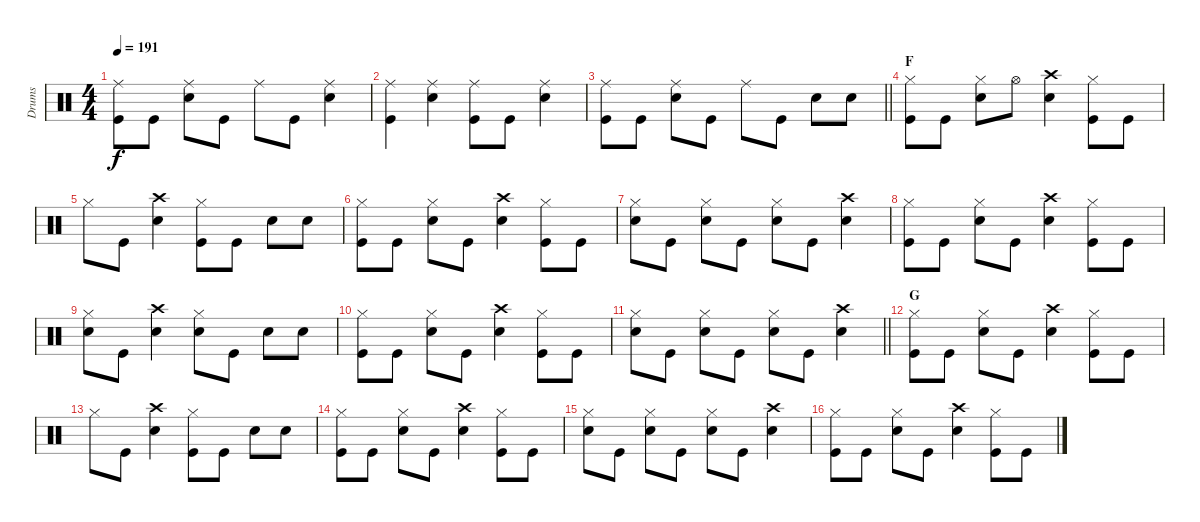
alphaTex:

\track ("Drums" "Drums") {instrument percussion}
\staff {score}
\articulation defaults
\ts (4 4)
\tempo 191
\clef neutral
\ks c
("Ride (middle)" "Kick (hit)").8{dy f} "Kick (hit)".8 ("Ride (middle)" "Electric Snare (hit)").8 "Kick (hit)".8 "Ride (middle)".8 "Kick (hit)".8 ("Ride (middle)" "Electric Snare (hit)").4 |
("Ride (middle)" "Kick (hit)").4 ("Ride (middle)" "Electric Snare (hit)").4 ("Ride (middle)" "Kick (hit)").8 "Kick (hit)".8 ("Ride (middle)" "Electric Snare (hit)").4 |
\barLineRight lightlight
("Ride (middle)" "Kick (hit)").8 "Kick (hit)".8 ("Ride (middle)" "Electric Snare (hit)").8 "Kick (hit)".8 "Ride (middle)".8 "Kick (hit)".8 "Electric Snare (hit)".8 "Electric Snare (hit)".8 |
\section ("" "F")
("Hi-Hat (closed)" "Kick (hit)").8 "Kick (hit)".8 ("Hi-Hat (closed)" "Electric Snare (hit)").8 "Hi-Hat (open)".8 ("Crash high (hit)" "Electric Snare (hit)").4 ("Hi-Hat (closed)" "Kick (hit)").8 "Kick (hit)".8 |
"Hi-Hat (closed)".8 "Kick (hit)".8 ("Crash high (hit)" "Electric Snare (hit)").4 ("Hi-Hat (closed)" "Kick (hit)").8 "Kick (hit)".8 "Electric Snare (hit)".8 "Electric Snare (hit)".8 |
("Hi-Hat (closed)" "Kick (hit)").8 "Kick (hit)".8 ("Hi-Hat (closed)" "Electric Snare (hit)").8 "Kick (hit)".8 ("Crash high (hit)" "Electric Snare (hit)").4 ("Hi-Hat (closed)" "Kick (hit)").8 "Kick (hit)".8 |
("Hi-Hat (closed)" "Electric Snare (hit)").8 "Kick (hit)".8 ("Hi-Hat (closed)" "Electric Snare (hit)").8 "Kick (hit)".8 ("Hi-Hat (closed)" "Electric Snare (hit)").8 "Kick (hit)".8 ("Crash high (hit)" "Electric Snare (hit)").4 |
("Hi-Hat (closed)" "Kick (hit)").8 "Kick (hit)".8 ("Hi-Hat (closed)" "Electric Snare (hit)").8 "Kick (hit)".8 ("Crash high (hit)" "Electric Snare (hit)").4 ("Hi-Hat (closed)" "Kick (hit)").8 "Kick (hit)".8 |
("Hi-Hat (closed)" "Electric Snare (hit)").8 "Kick (hit)".8 ("Crash high (hit)" "Electric Snare (hit)").4 ("Hi-Hat (closed)" "Electric Snare (hit)").8 "Kick (hit)".8 "Electric Snare (hit)".8 "Electric Snare (hit)".8 |
("Hi-Hat (closed)" "Kick (hit)").8 "Kick (hit)".8 ("Hi-Hat (closed)" "Electric Snare (hit)").8 "Kick (hit)".8 ("Crash high (hit)" "Electric Snare (hit)").4 ("Hi-Hat (closed)" "Kick (hit)").8 "Kick (hit)".8 |
\barLineRight lightlight
("Hi-Hat (closed)" "Electric Snare (hit)").8 "Kick (hit)".8 ("Hi-Hat (closed)" "Electric Snare (hit)").8 "Kick (hit)".8 ("Hi-Hat (closed)" "Electric Snare (hit)").8 "Kick (hit)".8 ("Crash high (hit)" "Electric Snare (hit)").4 |
\section ("" "G")
("Hi-Hat (closed)" "Kick (hit)").8 "Kick (hit)".8 ("Hi-Hat (closed)" "Electric Snare (hit)").8 "Kick (hit)".8 ("Crash high (hit)" "Electric Snare (hit)").4 ("Hi-Hat (closed)" "Kick (hit)").8 "Kick (hit)".8 |
"Hi-Hat (closed)".8 "Kick (hit)".8 ("Crash high (hit)" "Electric Snare (hit)").4 ("Hi-Hat (closed)" "Kick (hit)").8 "Kick (hit)".8 "Electric Snare (hit)".8 "Electric Snare (hit)".8 |
("Hi-Hat (closed)" "Kick (hit)").8 "Kick (hit)".8 ("Hi-Hat (closed)" "Electric Snare (hit)").8 "Kick (hit)".8 ("Crash high (hit)" "Electric Snare (hit)").4 ("Hi-Hat (closed)" "Kick (hit)").8 "Kick (hit)".8 |
("Hi-Hat (closed)" "Electric Snare (hit)").8 "Kick (hit)".8 ("Hi-Hat (closed)" "Electric Snare (hit)").8 "Kick (hit)".8 ("Hi-Hat (closed)" "Electric Snare (hit)").8 "Kick (hit)".8 ("Crash high (hit)" "Electric Snare (hit)").4 |
("Hi-Hat (closed)" "Kick (hit)").8 "Kick (hit)".8 ("Hi-Hat (closed)" "Electric Snare (hit)").8 "Kick (hit)".8 ("Crash high (hit)" "Electric Snare (hit)").4 ("Hi-Hat (closed)" "Kick (hit)").8 "Kick (hit)".8
